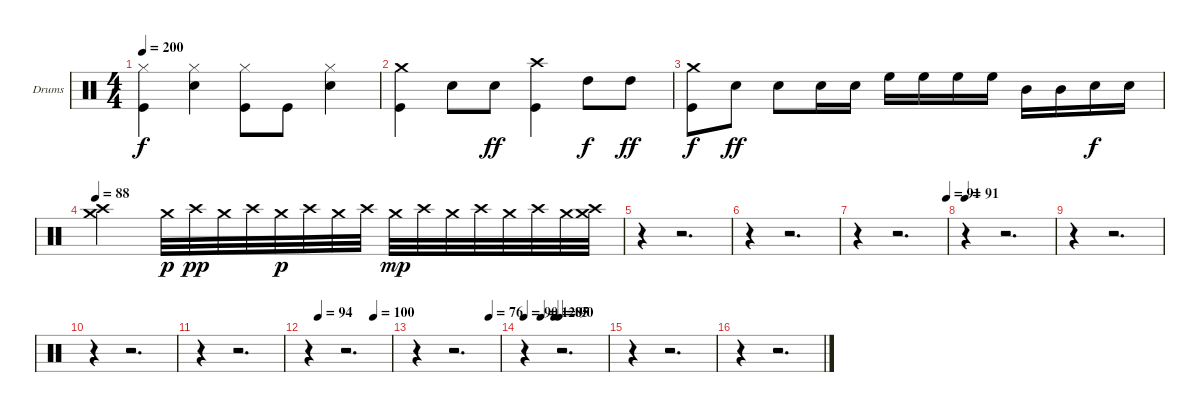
\bracketExtendMode groupsimilarinstruments
\firstSystemTrackNameOrientation horizontal
\otherSystemsTrackNameOrientation horizontal
\track ("Drumkit" "Drums") {instrument percussion}
\staff {score}
\articulation defaults
\ts (4 4)
\tempo 200
\clef neutral
\ks c
("Hi-Hat (closed)" "Kick (hit)").4{dy f} ("Hi-Hat (closed)" "Snare (hit) 2").4 ("Hi-Hat (closed)" "Kick (hit)").8 "Kick (hit)".8 ("Hi-Hat (closed)" "Snare (hit) 2").4 |
("Crash medium (hit)" "Kick (hit)").4 "Snare (hit) 2".8 "Snare (hit) 2".8{dy ff} ("Crash high (hit)" "Kick (hit)").4 "High Tom (hit)".8{dy f} "High Tom (hit)".8{dy ff} |
("Crash medium (hit)" "Kick (hit)").8{dy f} "Snare (hit) 2".8{dy ff} "Snare (hit) 2".8 "Snare (hit) 2".16 "Snare (hit) 2".16 "High Floor Tom (hit)".16 "High Floor Tom (hit)".16 "High Floor Tom (hit)".16 "High Floor Tom (hit)".16 "Mid Tom (hit)".16 "Mid Tom (hit)".16 "Snare (hit) 2".16{dy f} "Snare (hit) 2".16 |
\tempo 88
("Crash medium (hit)" "Crash high (hit)").2 "Crash medium (hit)".32{dy p} "Crash high (hit)".32{dy pp} "Crash medium (hit)".32 "Crash high (hit)".32 "Crash medium (hit)".32{dy p} "Crash high (hit)".32 "Crash medium (hit)".32 "Crash high (hit)".32 "Crash medium (hit)".32{dy mp} "Crash high (hit)".32 "Crash medium (hit)".32 "Crash high (hit)".32 "Crash medium (hit)".32 "Crash high (hit)".32 "Crash medium (hit)".32 ("Crash high (hit)" "Crash medium (hit)").32 |
r.4 r.2{d} |
r.4 r.2{d} |
\tempo (91 1)
r.4 r.2{d} |
\tempo 91
r.4 r.2{d} |
r.4 r.2{d} |
r.4 r.2{d} |
r.4 r.2{d} |
\tempo (94 0.125)
\tempo (100 0.791667)
r.4 r.2{d} |
\tempo (76 0.875)
r.4 r.2{d} |
\tempo 90
\tempo (120 0.205479)
\tempo (85 0.369863)
\tempo (90 0.424658)
r.4 r.2{d} |
r.4 r.2{d} |
r.4 r.2{d}
